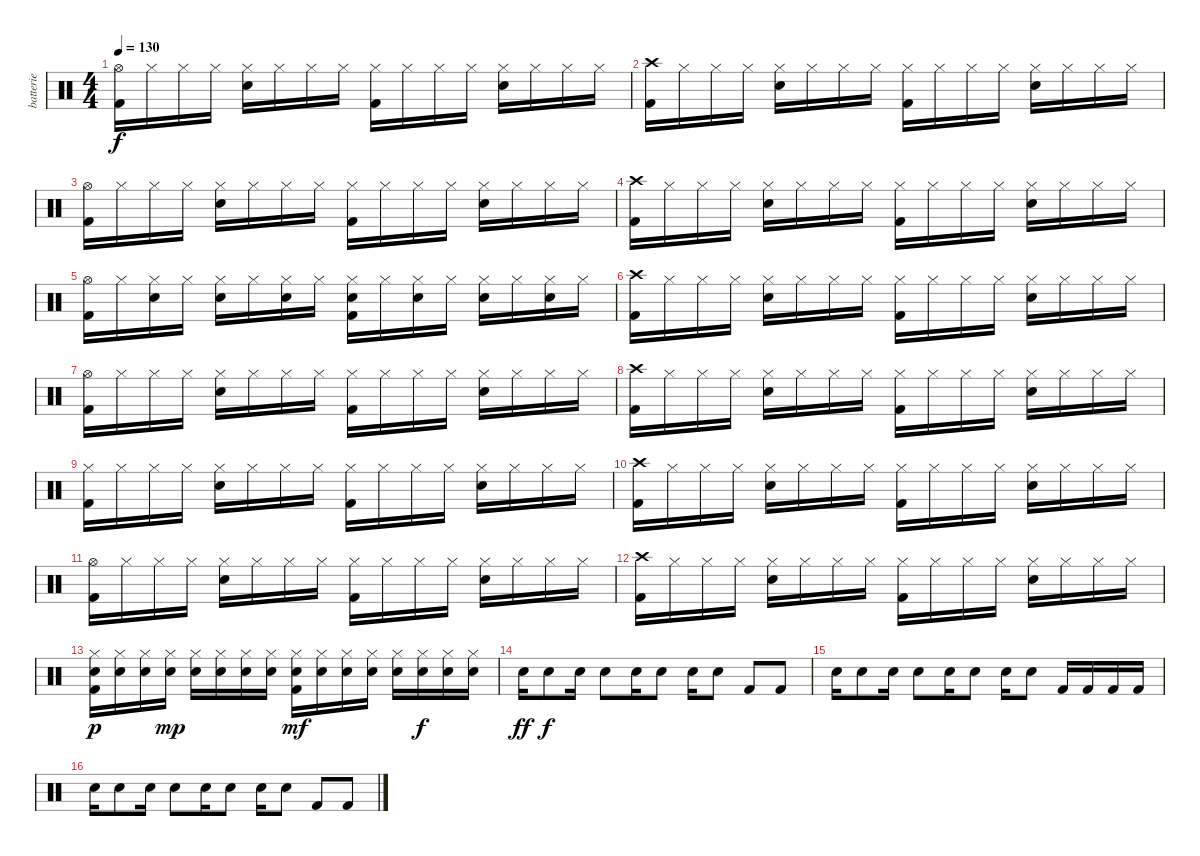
\track ("batterie" "batterie") {instrument percussion}
\staff {score}
\articulation defaults
\ts (4 4)
\tempo 130
\clef neutral
\ks c
("Hi-Hat (open)" "Kick (hit) 2").16{dy f} "Hi-Hat (closed)".16 "Hi-Hat (closed)".16 "Hi-Hat (closed)".16 ("Hi-Hat (closed)" "Electric Snare (hit)").16 "Hi-Hat (closed)".16 "Hi-Hat (closed)".16 "Hi-Hat (closed)".16 ("Hi-Hat (closed)" "Kick (hit) 2").16 "Hi-Hat (closed)".16 "Hi-Hat (closed)".16 "Hi-Hat (closed)".16 ("Hi-Hat (closed)" "Electric Snare (hit)").16 "Hi-Hat (closed)".16 "Hi-Hat (closed)".16 "Hi-Hat (closed)".16 |
("Crash high (hit)" "Kick (hit) 2").16 "Hi-Hat (closed)".16 "Hi-Hat (closed)".16 "Hi-Hat (closed)".16 ("Hi-Hat (closed)" "Electric Snare (hit)").16 "Hi-Hat (closed)".16 "Hi-Hat (closed)".16 "Hi-Hat (closed)".16 ("Hi-Hat (closed)" "Kick (hit) 2").16 "Hi-Hat (closed)".16 "Hi-Hat (closed)".16 "Hi-Hat (closed)".16 ("Hi-Hat (closed)" "Electric Snare (hit)").16 "Hi-Hat (closed)".16 "Hi-Hat (closed)".16 "Hi-Hat (closed)".16 |
("Hi-Hat (open)" "Kick (hit) 2").16 "Hi-Hat (closed)".16 "Hi-Hat (closed)".16 "Hi-Hat (closed)".16 ("Hi-Hat (closed)" "Electric Snare (hit)").16 "Hi-Hat (closed)".16 "Hi-Hat (closed)".16 "Hi-Hat (closed)".16 ("Hi-Hat (closed)" "Kick (hit) 2").16 "Hi-Hat (closed)".16 "Hi-Hat (closed)".16 "Hi-Hat (closed)".16 ("Hi-Hat (closed)" "Electric Snare (hit)").16 "Hi-Hat (closed)".16 "Hi-Hat (closed)".16 "Hi-Hat (closed)".16 |
("Crash high (hit)" "Kick (hit) 2").16 "Hi-Hat (closed)".16 "Hi-Hat (closed)".16 "Hi-Hat (closed)".16 ("Hi-Hat (closed)" "Electric Snare (hit)").16 "Hi-Hat (closed)".16 "Hi-Hat (closed)".16 "Hi-Hat (closed)".16 ("Hi-Hat (closed)" "Kick (hit) 2").16 "Hi-Hat (closed)".16 "Hi-Hat (closed)".16 "Hi-Hat (closed)".16 ("Hi-Hat (closed)" "Electric Snare (hit)").16 "Hi-Hat (closed)".16 "Hi-Hat (closed)".16 "Hi-Hat (closed)".16 |
("Hi-Hat (open)" "Kick (hit) 2").16 "Hi-Hat (closed)".16 ("Hi-Hat (closed)" "Electric Snare (hit)").16 "Hi-Hat (closed)".16 ("Hi-Hat (closed)" "Electric Snare (hit)").16 "Hi-Hat (closed)".16 ("Hi-Hat (closed)" "Electric Snare (hit)").16 "Hi-Hat (closed)".16 ("Electric Snare (hit)" "Hi-Hat (closed)" "Kick (hit) 2").16 "Hi-Hat (closed)".16 ("Hi-Hat (closed)" "Electric Snare (hit)").16 "Hi-Hat (closed)".16 ("Hi-Hat (closed)" "Electric Snare (hit)").16 "Hi-Hat (closed)".16 ("Hi-Hat (closed)" "Electric Snare (hit)").16 "Hi-Hat (closed)".16 |
("Crash high (hit)" "Kick (hit) 2").16 "Hi-Hat (closed)".16 "Hi-Hat (closed)".16 "Hi-Hat (closed)".16 ("Hi-Hat (closed)" "Electric Snare (hit)").16 "Hi-Hat (closed)".16 "Hi-Hat (closed)".16 "Hi-Hat (closed)".16 ("Hi-Hat (closed)" "Kick (hit) 2").16 "Hi-Hat (closed)".16 "Hi-Hat (closed)".16 "Hi-Hat (closed)".16 ("Hi-Hat (closed)" "Electric Snare (hit)").16 "Hi-Hat (closed)".16 "Hi-Hat (closed)".16 "Hi-Hat (closed)".16 |
("Hi-Hat (open)" "Kick (hit) 2").16 "Hi-Hat (closed)".16 "Hi-Hat (closed)".16 "Hi-Hat (closed)".16 ("Hi-Hat (closed)" "Electric Snare (hit)").16 "Hi-Hat (closed)".16 "Hi-Hat (closed)".16 "Hi-Hat (closed)".16 ("Hi-Hat (closed)" "Kick (hit) 2").16 "Hi-Hat (closed)".16 "Hi-Hat (closed)".16 "Hi-Hat (closed)".16 ("Hi-Hat (closed)" "Electric Snare (hit)").16 "Hi-Hat (closed)".16 "Hi-Hat (closed)".16 "Hi-Hat (closed)".16 |
("Crash high (hit)" "Kick (hit) 2").16 "Hi-Hat (closed)".16 "Hi-Hat (closed)".16 "Hi-Hat (closed)".16 ("Hi-Hat (closed)" "Electric Snare (hit)").16 "Hi-Hat (closed)".16 "Hi-Hat (closed)".16 "Hi-Hat (closed)".16 ("Hi-Hat (closed)" "Kick (hit) 2").16 "Hi-Hat (closed)".16 "Hi-Hat (closed)".16 "Hi-Hat (closed)".16 ("Hi-Hat (closed)" "Electric Snare (hit)").16 "Hi-Hat (closed)".16 "Hi-Hat (closed)".16 "Hi-Hat (closed)".16 |
("Hi-Hat (closed)" "Kick (hit) 2").16 "Hi-Hat (closed)".16 "Hi-Hat (closed)".16 "Hi-Hat (closed)".16 ("Hi-Hat (closed)" "Electric Snare (hit)").16 "Hi-Hat (closed)".16 "Hi-Hat (closed)".16 "Hi-Hat (closed)".16 ("Hi-Hat (closed)" "Kick (hit) 2").16 "Hi-Hat (closed)".16 "Hi-Hat (closed)".16 "Hi-Hat (closed)".16 ("Hi-Hat (closed)" "Electric Snare (hit)").16 "Hi-Hat (closed)".16 "Hi-Hat (closed)".16 "Hi-Hat (closed)".16 |
("Crash high (hit)" "Kick (hit) 2").16 "Hi-Hat (closed)".16 "Hi-Hat (closed)".16 "Hi-Hat (closed)".16 ("Hi-Hat (closed)" "Electric Snare (hit)").16 "Hi-Hat (closed)".16 "Hi-Hat (closed)".16 "Hi-Hat (closed)".16 ("Hi-Hat (closed)" "Kick (hit) 2").16 "Hi-Hat (closed)".16 "Hi-Hat (closed)".16 "Hi-Hat (closed)".16 ("Hi-Hat (closed)" "Electric Snare (hit)").16 "Hi-Hat (closed)".16 "Hi-Hat (closed)".16 "Hi-Hat (closed)".16 |
("Hi-Hat (open)" "Kick (hit) 2").16 "Hi-Hat (closed)".16 "Hi-Hat (closed)".16 "Hi-Hat (closed)".16 ("Hi-Hat (closed)" "Electric Snare (hit)").16 "Hi-Hat (closed)".16 "Hi-Hat (closed)".16 "Hi-Hat (closed)".16 ("Hi-Hat (closed)" "Kick (hit) 2").16 "Hi-Hat (closed)".16 "Hi-Hat (closed)".16 "Hi-Hat (closed)".16 ("Hi-Hat (closed)" "Electric Snare (hit)").16 "Hi-Hat (closed)".16 "Hi-Hat (closed)".16 "Hi-Hat (closed)".16 |
("Crash high (hit)" "Kick (hit) 2").16 "Hi-Hat (closed)".16 "Hi-Hat (closed)".16 "Hi-Hat (closed)".16 ("Hi-Hat (closed)" "Electric Snare (hit)").16 "Hi-Hat (closed)".16 "Hi-Hat (closed)".16 "Hi-Hat (closed)".16 ("Hi-Hat (closed)" "Kick (hit) 2").16 "Hi-Hat (closed)".16 "Hi-Hat (closed)".16 "Hi-Hat (closed)".16 ("Hi-Hat (closed)" "Electric Snare (hit)").16 "Hi-Hat (closed)".16 "Hi-Hat (closed)".16 "Hi-Hat (closed)".16 |
("Electric Snare (hit)" "Hi-Hat (closed)" "Kick (hit) 2").16{dy p} ("Electric Snare (hit)" "Hi-Hat (closed)").16 ("Electric Snare (hit)" "Hi-Hat (closed)").16 ("Electric Snare (hit)" "Hi-Hat (closed)").16{dy mp} ("Electric Snare (hit)" "Hi-Hat (closed)").16 ("Electric Snare (hit)" "Hi-Hat (closed)").16 ("Electric Snare (hit)" "Hi-Hat (closed)").16 ("Electric Snare (hit)" "Hi-Hat (closed)").16 ("Electric Snare (hit)" "Hi-Hat (closed)" "Kick (hit) 2").16{dy mf} ("Electric Snare (hit)" "Hi-Hat (closed)").16 ("Electric Snare (hit)" "Hi-Hat (closed)").16 ("Electric Snare (hit)" "Hi-Hat (closed)").16 ("Electric Snare (hit)" "Hi-Hat (closed)").16 ("Electric Snare (hit)" "Hi-Hat (closed)").16{dy f} ("Electric Snare (hit)" "Hi-Hat (closed)").16 ("Electric Snare (hit)" "Hi-Hat (closed)").16 |
"Electric Snare (hit)".16{dy ff} "Electric Snare (hit)".8{dy f} "Electric Snare (hit)".16 "Electric Snare (hit)".8 "Electric Snare (hit)".16 "Electric Snare (hit)".8 "Electric Snare (hit)".16 "Electric Snare (hit)".8 "Kick (hit) 2".8 "Kick (hit) 2".8 |
"Electric Snare (hit)".16 "Electric Snare (hit)".8 "Electric Snare (hit)".16 "Electric Snare (hit)".8 "Electric Snare (hit)".16 "Electric Snare (hit)".8 "Electric Snare (hit)".16 "Electric Snare (hit)".8 "Kick (hit) 2".16 "Kick (hit) 2".16 "Kick (hit) 2".16 "Kick (hit) 2".16 |
"Electric Snare (hit)".16 "Electric Snare (hit)".8 "Electric Snare (hit)".16 "Electric Snare (hit)".8 "Electric Snare (hit)".16 "Electric Snare (hit)".8 "Electric Snare (hit)".16 "Electric Snare (hit)".8 "Kick (hit) 2".8 "Kick (hit) 2".8
